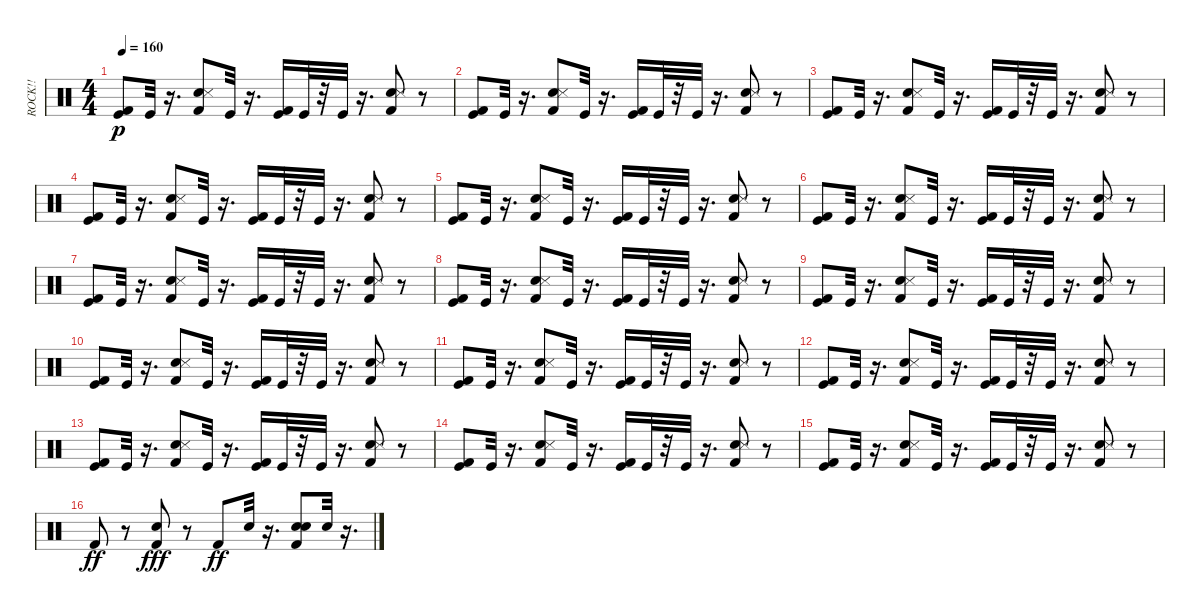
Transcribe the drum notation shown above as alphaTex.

\track ("ROCK!!" "ROCK!!") {instrument percussion}
\staff {score}
\articulation defaults
\ts (4 4)
\tempo 160
\clef neutral
\ks c
("Kick (hit) 2" "Kick (hit)").8{dy p} "Kick (hit)".32 r.16{d} ("Kick (hit) 2" "Electric Snare (hit)" "Snare (side stick) 3").8 "Kick (hit)".32 r.16{d} ("Kick (hit) 2" "Kick (hit)").16 "Kick (hit)".32 r.32 "Kick (hit)".32 r.16{d} ("Kick (hit) 2" "Electric Snare (hit)" "Snare (side stick) 3").8 r.8 |
("Kick (hit) 2" "Kick (hit)").8 "Kick (hit)".32 r.16{d} ("Kick (hit) 2" "Electric Snare (hit)" "Snare (side stick) 3").8 "Kick (hit)".32 r.16{d} ("Kick (hit) 2" "Kick (hit)").16 "Kick (hit)".32 r.32 "Kick (hit)".32 r.16{d} ("Kick (hit) 2" "Electric Snare (hit)" "Snare (side stick) 3").8 r.8 |
("Kick (hit) 2" "Kick (hit)").8 "Kick (hit)".32 r.16{d} ("Kick (hit) 2" "Electric Snare (hit)" "Snare (side stick) 3").8 "Kick (hit)".32 r.16{d} ("Kick (hit) 2" "Kick (hit)").16 "Kick (hit)".32 r.32 "Kick (hit)".32 r.16{d} ("Kick (hit) 2" "Electric Snare (hit)" "Snare (side stick) 3").8 r.8 |
("Kick (hit) 2" "Kick (hit)").8 "Kick (hit)".32 r.16{d} ("Kick (hit) 2" "Electric Snare (hit)" "Snare (side stick) 3").8 "Kick (hit)".32 r.16{d} ("Kick (hit) 2" "Kick (hit)").16 "Kick (hit)".32 r.32 "Kick (hit)".32 r.16{d} ("Kick (hit) 2" "Electric Snare (hit)" "Snare (side stick) 3").8 r.8 |
("Kick (hit) 2" "Kick (hit)").8 "Kick (hit)".32 r.16{d} ("Kick (hit) 2" "Electric Snare (hit)" "Snare (side stick) 3").8 "Kick (hit)".32 r.16{d} ("Kick (hit) 2" "Kick (hit)").16 "Kick (hit)".32 r.32 "Kick (hit)".32 r.16{d} ("Kick (hit) 2" "Electric Snare (hit)" "Snare (side stick) 3").8 r.8 |
("Kick (hit) 2" "Kick (hit)").8 "Kick (hit)".32 r.16{d} ("Kick (hit) 2" "Electric Snare (hit)" "Snare (side stick) 3").8 "Kick (hit)".32 r.16{d} ("Kick (hit) 2" "Kick (hit)").16 "Kick (hit)".32 r.32 "Kick (hit)".32 r.16{d} ("Kick (hit) 2" "Electric Snare (hit)" "Snare (side stick) 3").8 r.8 |
("Kick (hit) 2" "Kick (hit)").8 "Kick (hit)".32 r.16{d} ("Kick (hit) 2" "Electric Snare (hit)" "Snare (side stick) 3").8 "Kick (hit)".32 r.16{d} ("Kick (hit) 2" "Kick (hit)").16 "Kick (hit)".32 r.32 "Kick (hit)".32 r.16{d} ("Kick (hit) 2" "Electric Snare (hit)" "Snare (side stick) 3").8 r.8 |
("Kick (hit) 2" "Kick (hit)").8 "Kick (hit)".32 r.16{d} ("Kick (hit) 2" "Electric Snare (hit)" "Snare (side stick) 3").8 "Kick (hit)".32 r.16{d} ("Kick (hit) 2" "Kick (hit)").16 "Kick (hit)".32 r.32 "Kick (hit)".32 r.16{d} ("Kick (hit) 2" "Electric Snare (hit)" "Snare (side stick) 3").8 r.8 |
("Kick (hit) 2" "Kick (hit)").8 "Kick (hit)".32 r.16{d} ("Kick (hit) 2" "Electric Snare (hit)" "Snare (side stick) 3").8 "Kick (hit)".32 r.16{d} ("Kick (hit) 2" "Kick (hit)").16 "Kick (hit)".32 r.32 "Kick (hit)".32 r.16{d} ("Kick (hit) 2" "Electric Snare (hit)" "Snare (side stick) 3").8 r.8 |
("Kick (hit) 2" "Kick (hit)").8 "Kick (hit)".32 r.16{d} ("Kick (hit) 2" "Electric Snare (hit)" "Snare (side stick) 3").8 "Kick (hit)".32 r.16{d} ("Kick (hit) 2" "Kick (hit)").16 "Kick (hit)".32 r.32 "Kick (hit)".32 r.16{d} ("Kick (hit) 2" "Electric Snare (hit)" "Snare (side stick) 3").8 r.8 |
("Kick (hit) 2" "Kick (hit)").8 "Kick (hit)".32 r.16{d} ("Kick (hit) 2" "Electric Snare (hit)" "Snare (side stick) 3").8 "Kick (hit)".32 r.16{d} ("Kick (hit) 2" "Kick (hit)").16 "Kick (hit)".32 r.32 "Kick (hit)".32 r.16{d} ("Kick (hit) 2" "Electric Snare (hit)" "Snare (side stick) 3").8 r.8 |
("Kick (hit) 2" "Kick (hit)").8 "Kick (hit)".32 r.16{d} ("Kick (hit) 2" "Electric Snare (hit)" "Snare (side stick) 3").8 "Kick (hit)".32 r.16{d} ("Kick (hit) 2" "Kick (hit)").16 "Kick (hit)".32 r.32 "Kick (hit)".32 r.16{d} ("Kick (hit) 2" "Electric Snare (hit)" "Snare (side stick) 3").8 r.8 |
("Kick (hit) 2" "Kick (hit)").8 "Kick (hit)".32 r.16{d} ("Kick (hit) 2" "Electric Snare (hit)" "Snare (side stick) 3").8 "Kick (hit)".32 r.16{d} ("Kick (hit) 2" "Kick (hit)").16 "Kick (hit)".32 r.32 "Kick (hit)".32 r.16{d} ("Kick (hit) 2" "Electric Snare (hit)" "Snare (side stick) 3").8 r.8 |
("Kick (hit) 2" "Kick (hit)").8 "Kick (hit)".32 r.16{d} ("Kick (hit) 2" "Electric Snare (hit)" "Snare (side stick) 3").8 "Kick (hit)".32 r.16{d} ("Kick (hit) 2" "Kick (hit)").16 "Kick (hit)".32 r.32 "Kick (hit)".32 r.16{d} ("Kick (hit) 2" "Electric Snare (hit)" "Snare (side stick) 3").8 r.8 |
("Kick (hit) 2" "Kick (hit)").8 "Kick (hit)".32 r.16{d} ("Kick (hit) 2" "Electric Snare (hit)" "Snare (side stick) 3").8 "Kick (hit)".32 r.16{d} ("Kick (hit) 2" "Kick (hit)").16 "Kick (hit)".32 r.32 "Kick (hit)".32 r.16{d} ("Kick (hit) 2" "Electric Snare (hit)" "Snare (side stick) 3").8 r.8 |
"Kick (hit) 2".8{dy ff} r.8 ("Kick (hit) 2" "Electric Snare (hit)").8{dy fff} r.8 "Kick (hit) 2".8{dy ff} "Electric Snare (hit)".32 r.16{d} ("Kick (hit) 2" "Electric Snare (hit)" "Electric Snare (hit)").8 "Electric Snare (hit)".32 r.16{d}
